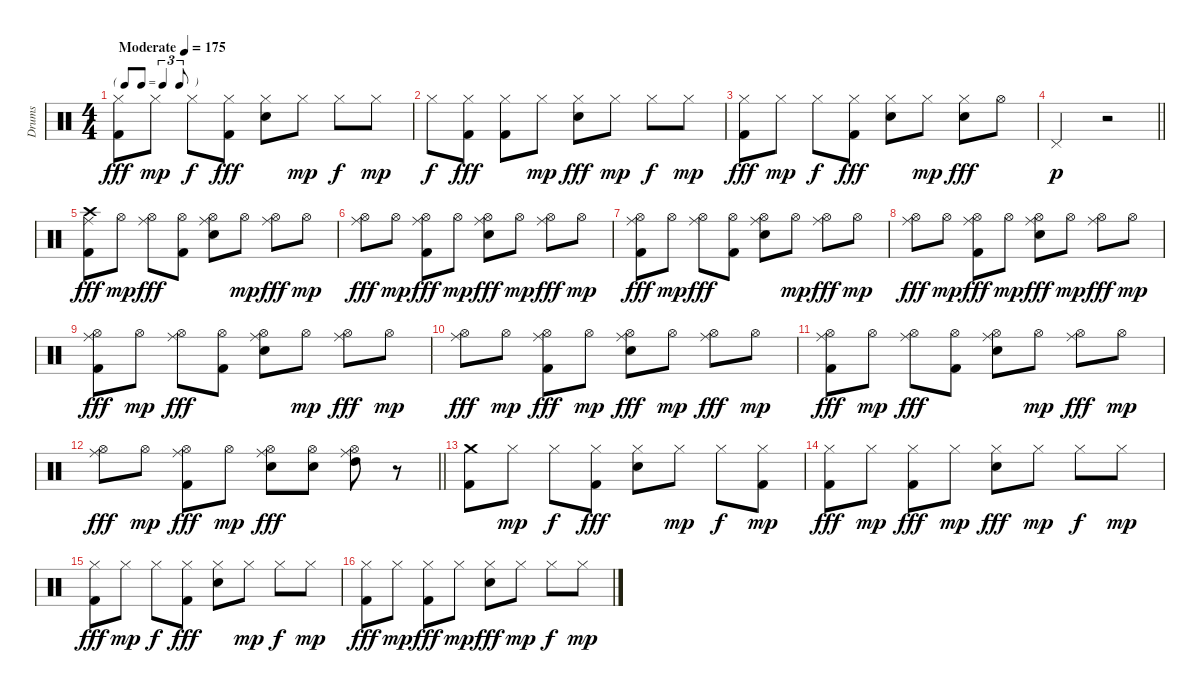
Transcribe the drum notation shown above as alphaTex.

\track ("Drums" "Drums") {instrument percussion}
\staff {score}
\articulation defaults
\ts (4 4)
\tf triplet8th
\tempo (175 "Moderate")
\clef neutral
\ks c
("Hi-Hat (closed)" "Kick (hit) 2").8{dy fff} "Hi-Hat (closed)".8{dy mp} "Hi-Hat (closed)".8{dy f} ("Hi-Hat (closed)" "Kick (hit) 2").8{dy fff} ("Hi-Hat (closed)" "Electric Snare (hit)").8 "Hi-Hat (closed)".8{dy mp} "Hi-Hat (closed)".8{dy f} "Hi-Hat (closed)".8{dy mp} |
"Hi-Hat (closed)".8{dy f} ("Hi-Hat (closed)" "Kick (hit) 2").8{dy fff} ("Hi-Hat (closed)" "Kick (hit) 2").8 "Hi-Hat (closed)".8{dy mp} ("Hi-Hat (closed)" "Electric Snare (hit)").8{dy fff} "Hi-Hat (closed)".8{dy mp} "Hi-Hat (closed)".8{dy f} "Hi-Hat (closed)".8{dy mp} |
("Hi-Hat (closed)" "Kick (hit) 2").8{dy fff} "Hi-Hat (closed)".8{dy mp} "Hi-Hat (closed)".8{dy f} ("Hi-Hat (closed)" "Kick (hit) 2").8{dy fff} ("Hi-Hat (closed)" "Electric Snare (hit)").8 "Hi-Hat (closed)".8{dy mp} ("Hi-Hat (closed)" "Electric Snare (hit)").8{dy fff} "Hi-Hat (open)".8 |
\barLineRight lightlight "Pedal Hi-Hat (hit)".2{dy p}
r.2 |
("Crash high (hit)" "Ride (middle)" "Kick (hit) 2").8{dy fff} "Hi-Hat (open)".8{dy mp} ("Hi-Hat (open)" "Ride (middle)").8{dy fff} ("Hi-Hat (open)" "Kick (hit) 2").8 ("Hi-Hat (open)" "Ride (middle)" "Electric Snare (hit)").8 "Hi-Hat (open)".8{dy mp} ("Hi-Hat (open)" "Ride (middle)").8{dy fff} "Hi-Hat (open)".8{dy mp} |
("Hi-Hat (open)" "Ride (middle)").8{dy fff} "Hi-Hat (open)".8{dy mp} ("Hi-Hat (open)" "Ride (middle)" "Kick (hit) 2").8{dy fff} "Hi-Hat (open)".8{dy mp} ("Hi-Hat (open)" "Ride (middle)" "Electric Snare (hit)").8{dy fff} "Hi-Hat (open)".8{dy mp} ("Hi-Hat (open)" "Ride (middle)").8{dy fff} "Hi-Hat (open)".8{dy mp} |
("Hi-Hat (open)" "Ride (middle)" "Kick (hit) 2").8{dy fff} "Hi-Hat (open)".8{dy mp} ("Hi-Hat (open)" "Ride (middle)").8{dy fff} ("Hi-Hat (open)" "Kick (hit) 2").8 ("Hi-Hat (open)" "Ride (middle)" "Electric Snare (hit)").8 "Hi-Hat (open)".8{dy mp} ("Hi-Hat (open)" "Ride (middle)").8{dy fff} "Hi-Hat (open)".8{dy mp} |
("Hi-Hat (open)" "Ride (middle)").8{dy fff} "Hi-Hat (open)".8{dy mp} ("Hi-Hat (open)" "Ride (middle)" "Kick (hit) 2").8{dy fff} "Hi-Hat (open)".8{dy mp} ("Hi-Hat (open)" "Ride (middle)" "Electric Snare (hit)").8{dy fff} "Hi-Hat (open)".8{dy mp} ("Hi-Hat (open)" "Ride (middle)").8{dy fff} "Hi-Hat (open)".8{dy mp} |
("Hi-Hat (open)" "Ride (middle)" "Kick (hit) 2").8{dy fff} "Hi-Hat (open)".8{dy mp} ("Hi-Hat (open)" "Ride (middle)").8{dy fff} ("Hi-Hat (open)" "Kick (hit) 2").8 ("Hi-Hat (open)" "Ride (middle)" "Electric Snare (hit)").8 "Hi-Hat (open)".8{dy mp} ("Hi-Hat (open)" "Ride (middle)").8{dy fff} "Hi-Hat (open)".8{dy mp} |
("Hi-Hat (open)" "Ride (middle)").8{dy fff} "Hi-Hat (open)".8{dy mp} ("Hi-Hat (open)" "Ride (middle)" "Kick (hit) 2").8{dy fff} "Hi-Hat (open)".8{dy mp} ("Hi-Hat (open)" "Ride (middle)" "Electric Snare (hit)").8{dy fff} "Hi-Hat (open)".8{dy mp} ("Hi-Hat (open)" "Ride (middle)").8{dy fff} "Hi-Hat (open)".8{dy mp} |
("Hi-Hat (open)" "Ride (middle)" "Kick (hit) 2").8{dy fff} "Hi-Hat (open)".8{dy mp} ("Hi-Hat (open)" "Ride (middle)").8{dy fff} ("Hi-Hat (open)" "Kick (hit) 2").8 ("Hi-Hat (open)" "Ride (middle)" "Electric Snare (hit)").8 "Hi-Hat (open)".8{dy mp} ("Hi-Hat (open)" "Ride (middle)").8{dy fff} "Hi-Hat (open)".8{dy mp} |
\barLineRight lightlight
("Hi-Hat (open)" "Ride (middle)").8{dy fff} "Hi-Hat (open)".8{dy mp} ("Hi-Hat (open)" "Ride (middle)" "Kick (hit) 2").8{dy fff} "Hi-Hat (open)".8{dy mp} ("Hi-Hat (open)" "Ride (middle)" "Electric Snare (hit)").8{dy fff} ("Hi-Hat (open)" "Electric Snare (hit)").8 ("Hi-Hat (open)" "Ride (middle)" "High Tom (hit)").8 r.8 |
("Crash medium (hit)" "Kick (hit) 2").8 "Hi-Hat (closed)".8{dy mp} "Hi-Hat (closed)".8{dy f} ("Hi-Hat (closed)" "Kick (hit) 2").8{dy fff} ("Hi-Hat (closed)" "Electric Snare (hit)").8 "Hi-Hat (closed)".8{dy mp} "Hi-Hat (closed)".8{dy f} ("Hi-Hat (closed)" "Kick (hit) 2").8{dy mp} |
("Hi-Hat (closed)" "Kick (hit) 2").8{dy fff} "Hi-Hat (closed)".8{dy mp} ("Hi-Hat (closed)" "Kick (hit) 2").8{dy fff} "Hi-Hat (closed)".8{dy mp} ("Hi-Hat (closed)" "Electric Snare (hit)").8{dy fff} "Hi-Hat (closed)".8{dy mp} "Hi-Hat (closed)".8{dy f} "Hi-Hat (closed)".8{dy mp} |
("Hi-Hat (closed)" "Kick (hit) 2").8{dy fff} "Hi-Hat (closed)".8{dy mp} "Hi-Hat (closed)".8{dy f} ("Hi-Hat (closed)" "Kick (hit) 2").8{dy fff} ("Hi-Hat (closed)" "Electric Snare (hit)").8 "Hi-Hat (closed)".8{dy mp} "Hi-Hat (closed)".8{dy f} "Hi-Hat (closed)".8{dy mp} |
("Hi-Hat (closed)" "Kick (hit) 2").8{dy fff} "Hi-Hat (closed)".8{dy mp} ("Hi-Hat (closed)" "Kick (hit) 2").8{dy fff} "Hi-Hat (closed)".8{dy mp} ("Hi-Hat (closed)" "Electric Snare (hit)").8{dy fff} "Hi-Hat (closed)".8{dy mp} "Hi-Hat (closed)".8{dy f} "Hi-Hat (closed)".8{dy mp}
